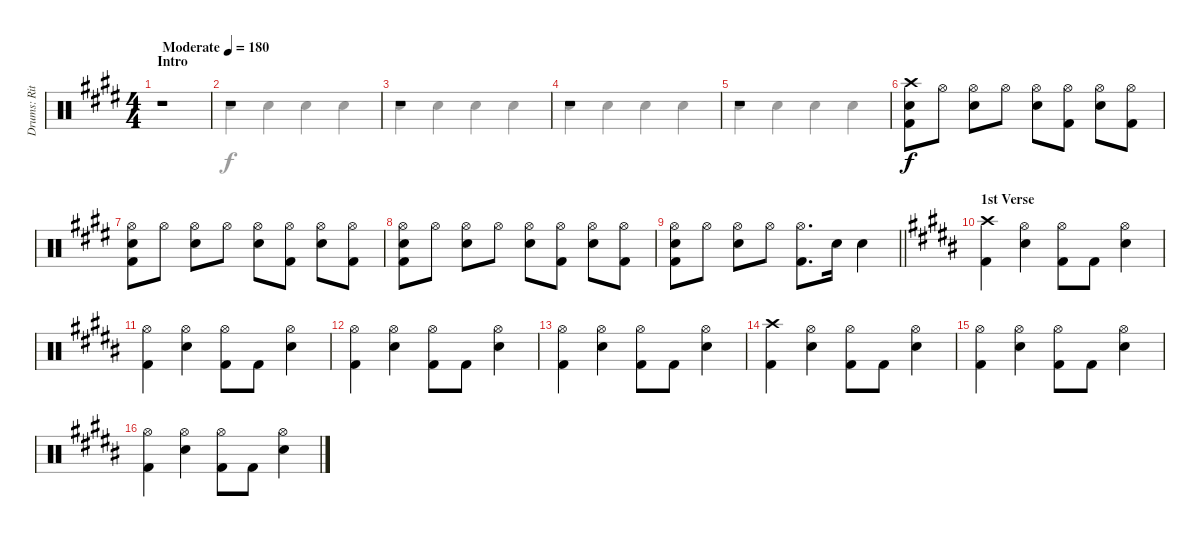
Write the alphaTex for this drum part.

\track ("Drums: Ritsu " "Drums: Rit") {instrument percussion}
\staff {score}
\articulation defaults
\voice
\ts (4 4)
\section ("" "Intro")
\tempo (180 "Moderate")
\clef neutral
\ks e
r.1{dy f} |
r.1 |
r.1 |
r.1 |
r.1 |
("Crash high (hit)" "Electric Snare (hit)" "Kick (hit) 2").8 "Hi-Hat (open)".8 ("Hi-Hat (open)" "Electric Snare (hit)").8 "Hi-Hat (open)".8 ("Hi-Hat (open)" "Electric Snare (hit)").8 ("Hi-Hat (open)" "Kick (hit) 2").8 ("Hi-Hat (open)" "Electric Snare (hit)").8 ("Hi-Hat (open)" "Kick (hit) 2").8 |
("Hi-Hat (open)" "Electric Snare (hit)" "Kick (hit) 2").8 "Hi-Hat (open)".8 ("Hi-Hat (open)" "Electric Snare (hit)").8 "Hi-Hat (open)".8 ("Hi-Hat (open)" "Electric Snare (hit)").8 ("Hi-Hat (open)" "Kick (hit) 2").8 ("Hi-Hat (open)" "Electric Snare (hit)").8 ("Hi-Hat (open)" "Kick (hit) 2").8 |
("Hi-Hat (open)" "Electric Snare (hit)" "Kick (hit) 2").8 "Hi-Hat (open)".8 ("Hi-Hat (open)" "Electric Snare (hit)").8 "Hi-Hat (open)".8 ("Hi-Hat (open)" "Electric Snare (hit)").8 ("Hi-Hat (open)" "Kick (hit) 2").8 ("Hi-Hat (open)" "Electric Snare (hit)").8 ("Hi-Hat (open)" "Kick (hit) 2").8 |
\barLineRight lightlight
("Hi-Hat (open)" "Electric Snare (hit)" "Kick (hit) 2").8 "Hi-Hat (open)".8 ("Hi-Hat (open)" "Electric Snare (hit)").8 "Hi-Hat (open)".8 ("Hi-Hat (open)" "Kick (hit) 2").8{d} "Electric Snare (hit)".16 "Electric Snare (hit)".4 |
\section ("" "1st Verse")
\ks b
("Crash high (hit)" "Kick (hit) 2").4 ("Hi-Hat (open)" "Electric Snare (hit)").4 ("Hi-Hat (open)" "Kick (hit) 2").8 "Kick (hit) 2".8 ("Hi-Hat (open)" "Electric Snare (hit)").4 |
("Hi-Hat (open)" "Kick (hit) 2").4 ("Hi-Hat (open)" "Electric Snare (hit)").4 ("Hi-Hat (open)" "Kick (hit) 2").8 "Kick (hit) 2".8 ("Hi-Hat (open)" "Electric Snare (hit)").4 |
("Hi-Hat (open)" "Kick (hit) 2").4 ("Hi-Hat (open)" "Electric Snare (hit)").4 ("Hi-Hat (open)" "Kick (hit) 2").8 "Kick (hit) 2".8 ("Hi-Hat (open)" "Electric Snare (hit)").4 |
("Hi-Hat (open)" "Kick (hit) 2").4 ("Hi-Hat (open)" "Electric Snare (hit)").4 ("Hi-Hat (open)" "Kick (hit) 2").8 "Kick (hit) 2".8 ("Hi-Hat (open)" "Electric Snare (hit)").4 |
("Crash high (hit)" "Kick (hit) 2").4 ("Hi-Hat (open)" "Electric Snare (hit)").4 ("Hi-Hat (open)" "Kick (hit) 2").8 "Kick (hit) 2".8 ("Hi-Hat (open)" "Electric Snare (hit)").4 |
("Hi-Hat (open)" "Kick (hit) 2").4 ("Hi-Hat (open)" "Electric Snare (hit)").4 ("Hi-Hat (open)" "Kick (hit) 2").8 "Kick (hit) 2".8 ("Hi-Hat (open)" "Electric Snare (hit)").4 |
("Hi-Hat (open)" "Kick (hit) 2").4 ("Hi-Hat (open)" "Electric Snare (hit)").4 ("Hi-Hat (open)" "Kick (hit) 2").8 "Kick (hit) 2".8 ("Hi-Hat (open)" "Electric Snare (hit)").4
\voice
\clef neutral
\ottava regular
\simile none
\ks e
|
"Hand Clap (hit)".4 "Hand Clap (hit)".4 "Hand Clap (hit)".4 "Hand Clap (hit)".4 |
"Hand Clap (hit)".4 "Hand Clap (hit)".4 "Hand Clap (hit)".4 "Hand Clap (hit)".4 |
"Hand Clap (hit)".4 "Hand Clap (hit)".4 "Hand Clap (hit)".4 "Hand Clap (hit)".4 |
"Hand Clap (hit)".4 "Hand Clap (hit)".4 "Hand Clap (hit)".4 "Hand Clap (hit)".4 |
|
|
|
\barLineRight lightlight
|
\ks b
|
|
|
|
|
|
